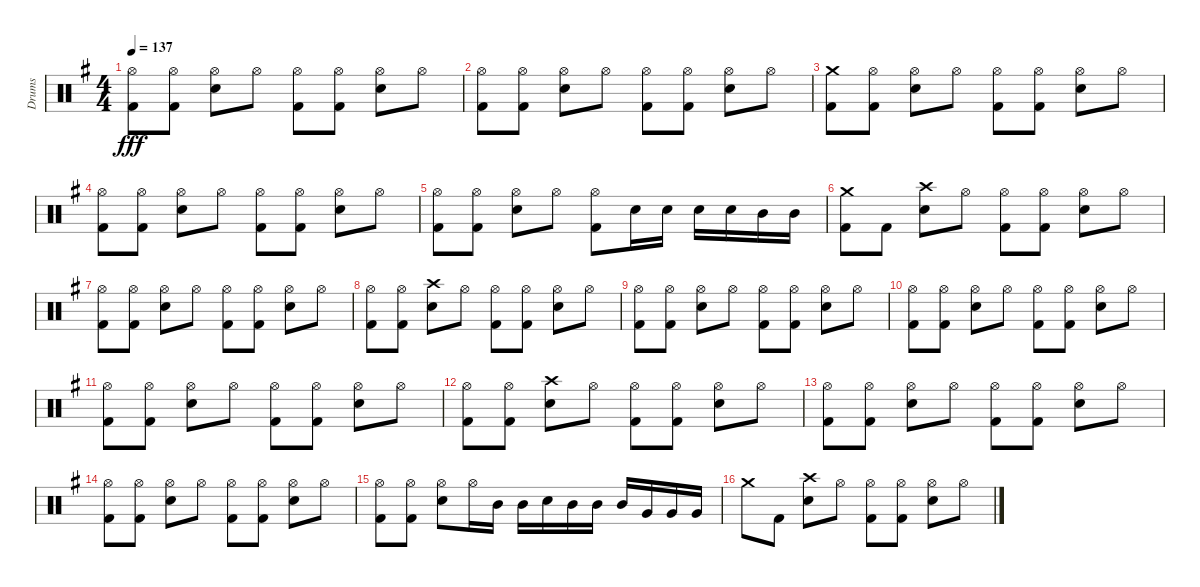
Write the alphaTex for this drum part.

\track ("Drums" "Drums") {instrument percussion}
\staff {score}
\articulation defaults
\ts (4 4)
\tempo 137
\clef neutral
\ks g
("Hi-Hat (open)" "Kick (hit) 2").8{dy fff} ("Hi-Hat (open)" "Kick (hit) 2").8 ("Hi-Hat (open)" "Electric Snare (hit)").8 "Hi-Hat (open)".8 ("Hi-Hat (open)" "Kick (hit) 2").8 ("Hi-Hat (open)" "Kick (hit) 2").8 ("Hi-Hat (open)" "Electric Snare (hit)").8 "Hi-Hat (open)".8 |
("Hi-Hat (open)" "Kick (hit) 2").8 ("Hi-Hat (open)" "Kick (hit) 2").8 ("Hi-Hat (open)" "Electric Snare (hit)").8 "Hi-Hat (open)".8 ("Hi-Hat (open)" "Kick (hit) 2").8 ("Hi-Hat (open)" "Kick (hit) 2").8 ("Hi-Hat (open)" "Electric Snare (hit)").8 "Hi-Hat (open)".8 |
("Crash medium (hit)" "Kick (hit) 2").8 ("Hi-Hat (open)" "Kick (hit) 2").8 ("Hi-Hat (open)" "Electric Snare (hit)").8 "Hi-Hat (open)".8 ("Hi-Hat (open)" "Kick (hit) 2").8 ("Hi-Hat (open)" "Kick (hit) 2").8 ("Hi-Hat (open)" "Electric Snare (hit)").8 "Hi-Hat (open)".8 |
("Hi-Hat (open)" "Kick (hit) 2").8 ("Hi-Hat (open)" "Kick (hit) 2").8 ("Hi-Hat (open)" "Electric Snare (hit)").8 "Hi-Hat (open)".8 ("Hi-Hat (open)" "Kick (hit) 2").8 ("Hi-Hat (open)" "Kick (hit) 2").8 ("Hi-Hat (open)" "Electric Snare (hit)").8 "Hi-Hat (open)".8 |
("Hi-Hat (open)" "Kick (hit) 2").8 ("Hi-Hat (open)" "Kick (hit) 2").8 ("Hi-Hat (open)" "Electric Snare (hit)").8 "Hi-Hat (open)".8 ("Hi-Hat (open)" "Kick (hit) 2").8 "Electric Snare (hit)".16 "Electric Snare (hit)".16 "Electric Snare (hit)".16 "Electric Snare (hit)".16 "Mid Tom (hit)".16 "Mid Tom (hit)".16 |
("Crash medium (hit)" "Kick (hit) 2").8 "Kick (hit) 2".8 ("Crash high (hit)" "Electric Snare (hit)").8 "Hi-Hat (open)".8 ("Hi-Hat (open)" "Kick (hit) 2").8 ("Hi-Hat (open)" "Kick (hit) 2").8 ("Hi-Hat (open)" "Electric Snare (hit)").8 "Hi-Hat (open)".8 |
("Hi-Hat (open)" "Kick (hit) 2").8 ("Hi-Hat (open)" "Kick (hit) 2").8 ("Hi-Hat (open)" "Electric Snare (hit)").8 "Hi-Hat (open)".8 ("Hi-Hat (open)" "Kick (hit) 2").8 ("Hi-Hat (open)" "Kick (hit) 2").8 ("Hi-Hat (open)" "Electric Snare (hit)").8 "Hi-Hat (open)".8 |
("Hi-Hat (open)" "Kick (hit) 2").8 ("Hi-Hat (open)" "Kick (hit) 2").8 ("Crash high (hit)" "Electric Snare (hit)").8 "Hi-Hat (open)".8 ("Hi-Hat (open)" "Kick (hit) 2").8 ("Hi-Hat (open)" "Kick (hit) 2").8 ("Hi-Hat (open)" "Electric Snare (hit)").8 "Hi-Hat (open)".8 |
("Hi-Hat (open)" "Kick (hit) 2").8 ("Hi-Hat (open)" "Kick (hit) 2").8 ("Hi-Hat (open)" "Electric Snare (hit)").8 "Hi-Hat (open)".8 ("Hi-Hat (open)" "Kick (hit) 2").8 ("Hi-Hat (open)" "Kick (hit) 2").8 ("Hi-Hat (open)" "Electric Snare (hit)").8 "Hi-Hat (open)".8 |
("Hi-Hat (open)" "Kick (hit) 2").8 ("Hi-Hat (open)" "Kick (hit) 2").8 ("Hi-Hat (open)" "Electric Snare (hit)").8 "Hi-Hat (open)".8 ("Hi-Hat (open)" "Kick (hit) 2").8 ("Hi-Hat (open)" "Kick (hit) 2").8 ("Hi-Hat (open)" "Electric Snare (hit)").8 "Hi-Hat (open)".8 |
("Hi-Hat (open)" "Kick (hit) 2").8 ("Hi-Hat (open)" "Kick (hit) 2").8 ("Hi-Hat (open)" "Electric Snare (hit)").8 "Hi-Hat (open)".8 ("Hi-Hat (open)" "Kick (hit) 2").8 ("Hi-Hat (open)" "Kick (hit) 2").8 ("Hi-Hat (open)" "Electric Snare (hit)").8 "Hi-Hat (open)".8 |
("Hi-Hat (open)" "Kick (hit) 2").8 ("Hi-Hat (open)" "Kick (hit) 2").8 ("Crash high (hit)" "Electric Snare (hit)").8 "Hi-Hat (open)".8 ("Hi-Hat (open)" "Kick (hit) 2").8 ("Hi-Hat (open)" "Kick (hit) 2").8 ("Hi-Hat (open)" "Electric Snare (hit)").8 "Hi-Hat (open)".8 |
("Hi-Hat (open)" "Kick (hit) 2").8 ("Hi-Hat (open)" "Kick (hit) 2").8 ("Hi-Hat (open)" "Electric Snare (hit)").8 "Hi-Hat (open)".8 ("Hi-Hat (open)" "Kick (hit) 2").8 ("Hi-Hat (open)" "Kick (hit) 2").8 ("Hi-Hat (open)" "Electric Snare (hit)").8 "Hi-Hat (open)".8 |
("Hi-Hat (open)" "Kick (hit) 2").8 ("Hi-Hat (open)" "Kick (hit) 2").8 ("Hi-Hat (open)" "Electric Snare (hit)").8 "Hi-Hat (open)".8 ("Hi-Hat (open)" "Kick (hit) 2").8 ("Hi-Hat (open)" "Kick (hit) 2").8 ("Hi-Hat (open)" "Electric Snare (hit)").8 "Hi-Hat (open)".8 |
("Hi-Hat (open)" "Kick (hit) 2").8 ("Hi-Hat (open)" "Kick (hit) 2").8 ("Hi-Hat (open)" "Electric Snare (hit)").8 "Hi-Hat (open)".16 "Mid Tom (hit)".16 "Mid Tom (hit)".16 "Electric Snare (hit)".16 "Mid Tom (hit)".16 "Mid Tom (hit)".16 "Mid Tom (hit)".16 "Very Low Tom (hit)".16 "Very Low Tom (hit)".16 "Very Low Tom (hit)".16 |
"Crash medium (hit)".8 "Kick (hit) 2".8 ("Crash high (hit)" "Electric Snare (hit)").8 "Hi-Hat (open)".8 ("Hi-Hat (open)" "Kick (hit) 2").8 ("Hi-Hat (open)" "Kick (hit) 2").8 ("Hi-Hat (open)" "Electric Snare (hit)").8 "Hi-Hat (open)".8
